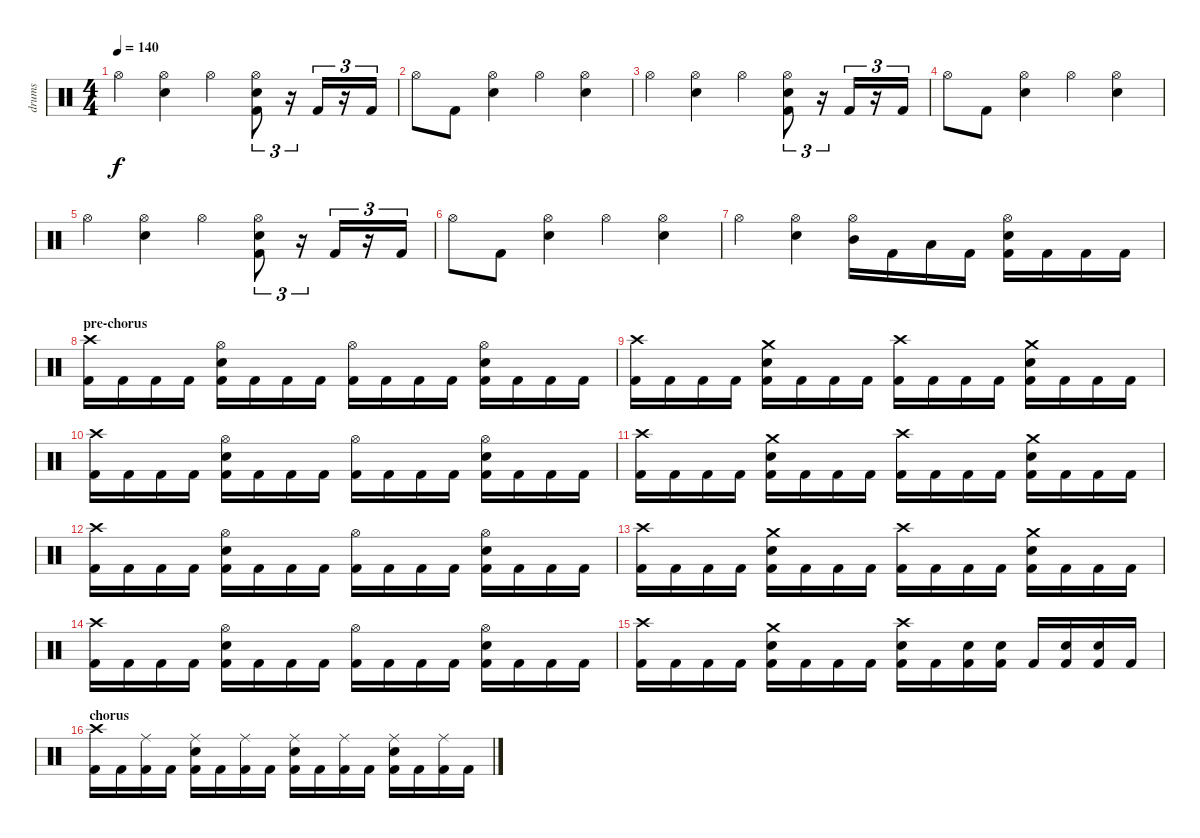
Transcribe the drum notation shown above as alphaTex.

\track ("drums" "drums") {instrument percussion}
\staff {score}
\articulation defaults
\ts (4 4)
\tempo 140
\clef neutral
\ks c "Hi-Hat (open)".4{dy f}
("Hi-Hat (open)" "Electric Snare (hit)").4 "Hi-Hat (open)".4 ("Hi-Hat (open)" "Electric Snare (hit)" "Kick (hit) 2").8{tu (3 2)} r.16{tu (3 2)} "Kick (hit) 2".16{tu (3 2)} r.16{tu (3 2)} "Kick (hit) 2".16{tu (3 2)} |
"Hi-Hat (open)".8 "Kick (hit) 2".8 ("Hi-Hat (open)" "Electric Snare (hit)").4 "Hi-Hat (open)".4 ("Hi-Hat (open)" "Electric Snare (hit)").4 |
"Hi-Hat (open)".4 ("Hi-Hat (open)" "Electric Snare (hit)").4 "Hi-Hat (open)".4 ("Hi-Hat (open)" "Electric Snare (hit)" "Kick (hit) 2").8{tu (3 2)} r.16{tu (3 2)} "Kick (hit) 2".16{tu (3 2)} r.16{tu (3 2)} "Kick (hit) 2".16{tu (3 2)} |
"Hi-Hat (open)".8 "Kick (hit) 2".8 ("Hi-Hat (open)" "Electric Snare (hit)").4 "Hi-Hat (open)".4 ("Hi-Hat (open)" "Electric Snare (hit)").4 |
"Hi-Hat (open)".4 ("Hi-Hat (open)" "Electric Snare (hit)").4 "Hi-Hat (open)".4 ("Hi-Hat (open)" "Electric Snare (hit)" "Kick (hit) 2").8{tu (3 2)} r.16{tu (3 2)} "Kick (hit) 2".16{tu (3 2)} r.16{tu (3 2)} "Kick (hit) 2".16{tu (3 2)} |
"Hi-Hat (open)".8 "Kick (hit) 2".8 ("Hi-Hat (open)" "Electric Snare (hit)").4 "Hi-Hat (open)".4 ("Hi-Hat (open)" "Electric Snare (hit)").4 |
"Hi-Hat (open)".4 ("Hi-Hat (open)" "Electric Snare (hit)").4 ("Hi-Hat (open)" "Mid Tom (hit)").16 "Kick (hit) 2".16 "Low Tom (hit)".16 "Kick (hit) 2".16 ("Hi-Hat (open)" "Electric Snare (hit)" "Kick (hit) 2").16 "Kick (hit) 2".16 "Kick (hit) 2".16 "Kick (hit) 2".16 |
\section ("" "pre-chorus")
("Crash high (hit)" "Kick (hit) 2").16 "Kick (hit) 2".16 "Kick (hit) 2".16 "Kick (hit) 2".16 ("Hi-Hat (open)" "Electric Snare (hit)" "Kick (hit) 2").16 "Kick (hit) 2".16 "Kick (hit) 2".16 "Kick (hit) 2".16 ("Hi-Hat (open)" "Kick (hit) 2").16 "Kick (hit) 2".16 "Kick (hit) 2".16 "Kick (hit) 2".16 ("Hi-Hat (open)" "Electric Snare (hit)" "Kick (hit) 2").16 "Kick (hit) 2".16 "Kick (hit) 2".16 "Kick (hit) 2".16 |
("Crash high (hit)" "Kick (hit) 2").16 "Kick (hit) 2".16 "Kick (hit) 2".16 "Kick (hit) 2".16 ("Crash medium (hit)" "Electric Snare (hit)" "Kick (hit) 2").16 "Kick (hit) 2".16 "Kick (hit) 2".16 "Kick (hit) 2".16 ("Crash high (hit)" "Kick (hit) 2").16 "Kick (hit) 2".16 "Kick (hit) 2".16 "Kick (hit) 2".16 ("Crash medium (hit)" "Electric Snare (hit)" "Kick (hit) 2").16 "Kick (hit) 2".16 "Kick (hit) 2".16 "Kick (hit) 2".16 |
("Crash high (hit)" "Kick (hit) 2").16 "Kick (hit) 2".16 "Kick (hit) 2".16 "Kick (hit) 2".16 ("Hi-Hat (open)" "Electric Snare (hit)" "Kick (hit) 2").16 "Kick (hit) 2".16 "Kick (hit) 2".16 "Kick (hit) 2".16 ("Hi-Hat (open)" "Kick (hit) 2").16 "Kick (hit) 2".16 "Kick (hit) 2".16 "Kick (hit) 2".16 ("Hi-Hat (open)" "Electric Snare (hit)" "Kick (hit) 2").16 "Kick (hit) 2".16 "Kick (hit) 2".16 "Kick (hit) 2".16 |
("Crash high (hit)" "Kick (hit) 2").16 "Kick (hit) 2".16 "Kick (hit) 2".16 "Kick (hit) 2".16 ("Crash medium (hit)" "Electric Snare (hit)" "Kick (hit) 2").16 "Kick (hit) 2".16 "Kick (hit) 2".16 "Kick (hit) 2".16 ("Crash high (hit)" "Kick (hit) 2").16 "Kick (hit) 2".16 "Kick (hit) 2".16 "Kick (hit) 2".16 ("Crash medium (hit)" "Electric Snare (hit)" "Kick (hit) 2").16 "Kick (hit) 2".16 "Kick (hit) 2".16 "Kick (hit) 2".16 |
("Crash high (hit)" "Kick (hit) 2").16 "Kick (hit) 2".16 "Kick (hit) 2".16 "Kick (hit) 2".16 ("Hi-Hat (open)" "Electric Snare (hit)" "Kick (hit) 2").16 "Kick (hit) 2".16 "Kick (hit) 2".16 "Kick (hit) 2".16 ("Hi-Hat (open)" "Kick (hit) 2").16 "Kick (hit) 2".16 "Kick (hit) 2".16 "Kick (hit) 2".16 ("Hi-Hat (open)" "Electric Snare (hit)" "Kick (hit) 2").16 "Kick (hit) 2".16 "Kick (hit) 2".16 "Kick (hit) 2".16 |
("Crash high (hit)" "Kick (hit) 2").16 "Kick (hit) 2".16 "Kick (hit) 2".16 "Kick (hit) 2".16 ("Crash medium (hit)" "Electric Snare (hit)" "Kick (hit) 2").16 "Kick (hit) 2".16 "Kick (hit) 2".16 "Kick (hit) 2".16 ("Crash high (hit)" "Kick (hit) 2").16 "Kick (hit) 2".16 "Kick (hit) 2".16 "Kick (hit) 2".16 ("Crash medium (hit)" "Electric Snare (hit)" "Kick (hit) 2").16 "Kick (hit) 2".16 "Kick (hit) 2".16 "Kick (hit) 2".16 |
("Crash high (hit)" "Kick (hit) 2").16 "Kick (hit) 2".16 "Kick (hit) 2".16 "Kick (hit) 2".16 ("Hi-Hat (open)" "Electric Snare (hit)" "Kick (hit) 2").16 "Kick (hit) 2".16 "Kick (hit) 2".16 "Kick (hit) 2".16 ("Hi-Hat (open)" "Kick (hit) 2").16 "Kick (hit) 2".16 "Kick (hit) 2".16 "Kick (hit) 2".16 ("Hi-Hat (open)" "Electric Snare (hit)" "Kick (hit) 2").16 "Kick (hit) 2".16 "Kick (hit) 2".16 "Kick (hit) 2".16 |
("Crash high (hit)" "Kick (hit) 2").16 "Kick (hit) 2".16 "Kick (hit) 2".16 "Kick (hit) 2".16 ("Crash medium (hit)" "Electric Snare (hit)" "Kick (hit) 2").16 "Kick (hit) 2".16 "Kick (hit) 2".16 "Kick (hit) 2".16 ("Crash high (hit)" "Electric Snare (hit)" "Kick (hit) 2").16 "Kick (hit) 2".16 ("Electric Snare (hit)" "Kick (hit) 2").16 ("Electric Snare (hit)" "Kick (hit) 2").16 "Kick (hit) 2".16 ("Electric Snare (hit)" "Kick (hit) 2").16 ("Electric Snare (hit)" "Kick (hit) 2").16 "Kick (hit) 2".16 |
\section ("" "chorus")
("Crash high (hit)" "Kick (hit) 2").16 "Kick (hit) 2".16 ("Ride (middle)" "Kick (hit) 2").16 "Kick (hit) 2".16 ("Ride (middle)" "Electric Snare (hit)" "Kick (hit) 2").16 "Kick (hit) 2".16 ("Ride (middle)" "Kick (hit) 2").16 "Kick (hit) 2".16 ("Ride (middle)" "Electric Snare (hit)" "Kick (hit) 2").16 "Kick (hit) 2".16 ("Ride (middle)" "Kick (hit) 2").16 "Kick (hit) 2".16 ("Ride (middle)" "Electric Snare (hit)" "Kick (hit) 2").16 "Kick (hit) 2".16 ("Ride (middle)" "Kick (hit) 2").16 "Kick (hit) 2".16
